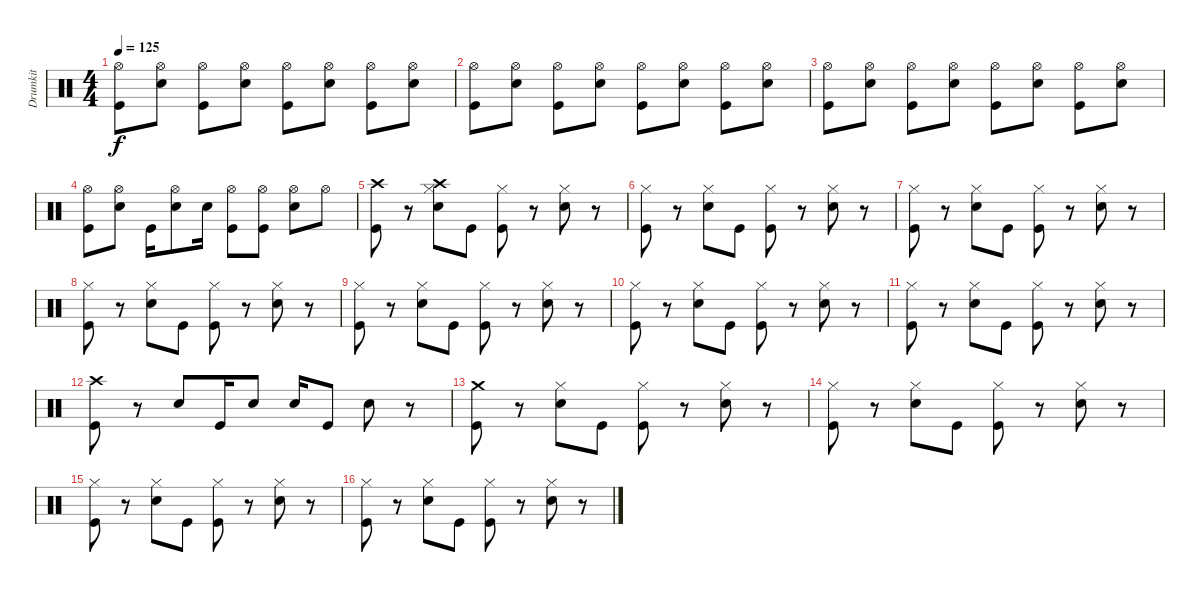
\track ("Drumkit" "Drumkit") {instrument percussion}
\staff {score}
\articulation defaults
\ts (4 4)
\tempo 125
\clef neutral
\ks c
("Hi-Hat (open)" "Kick (hit)").8{dy f} ("Hi-Hat (open)" "Snare (hit) 2").8 ("Hi-Hat (open)" "Kick (hit)").8 ("Hi-Hat (open)" "Snare (hit) 2").8 ("Hi-Hat (open)" "Kick (hit)").8 ("Hi-Hat (open)" "Snare (hit) 2").8 ("Hi-Hat (open)" "Kick (hit)").8 ("Hi-Hat (open)" "Snare (hit) 2").8 |
("Hi-Hat (open)" "Kick (hit)").8 ("Hi-Hat (open)" "Snare (hit) 2").8 ("Hi-Hat (open)" "Kick (hit)").8 ("Hi-Hat (open)" "Snare (hit) 2").8 ("Hi-Hat (open)" "Kick (hit)").8 ("Hi-Hat (open)" "Snare (hit) 2").8 ("Hi-Hat (open)" "Kick (hit)").8 ("Hi-Hat (open)" "Snare (hit) 2").8 |
("Hi-Hat (open)" "Kick (hit)").8 ("Hi-Hat (open)" "Snare (hit) 2").8 ("Hi-Hat (open)" "Kick (hit)").8 ("Hi-Hat (open)" "Snare (hit) 2").8 ("Hi-Hat (open)" "Kick (hit)").8 ("Hi-Hat (open)" "Snare (hit) 2").8 ("Hi-Hat (open)" "Kick (hit)").8 ("Hi-Hat (open)" "Snare (hit) 2").8 |
("Hi-Hat (open)" "Kick (hit)").8 ("Hi-Hat (open)" "Snare (hit) 2").8 "Kick (hit)".16 ("Hi-Hat (open)" "Snare (hit) 2").8 "Snare (hit) 2".16 ("Hi-Hat (open)" "Kick (hit)").8 ("Hi-Hat (open)" "Kick (hit)").8 ("Hi-Hat (open)" "Snare (hit) 2").8 "Hi-Hat (open)".8 |
("Crash high (hit)" "Kick (hit)").8 r.8 ("Crash high (hit)" "Hi-Hat (closed)" "Snare (hit) 2").8 "Kick (hit)".8 ("Hi-Hat (closed)" "Kick (hit)").8 r.8 ("Hi-Hat (closed)" "Snare (hit) 2").8 r.8 |
("Hi-Hat (closed)" "Kick (hit)").8 r.8 ("Hi-Hat (closed)" "Snare (hit) 2").8 "Kick (hit)".8 ("Hi-Hat (closed)" "Kick (hit)").8 r.8 ("Hi-Hat (closed)" "Snare (hit) 2").8 r.8 |
("Hi-Hat (closed)" "Kick (hit)").8 r.8 ("Hi-Hat (closed)" "Snare (hit) 2").8 "Kick (hit)".8 ("Hi-Hat (closed)" "Kick (hit)").8 r.8 ("Hi-Hat (closed)" "Snare (hit) 2").8 r.8 |
("Hi-Hat (closed)" "Kick (hit)").8 r.8 ("Hi-Hat (closed)" "Snare (hit) 2").8 "Kick (hit)".8 ("Hi-Hat (closed)" "Kick (hit)").8 r.8 ("Hi-Hat (closed)" "Snare (hit) 2").8 r.8 |
("Hi-Hat (closed)" "Kick (hit)").8 r.8 ("Hi-Hat (closed)" "Snare (hit) 2").8 "Kick (hit)".8 ("Hi-Hat (closed)" "Kick (hit)").8 r.8 ("Hi-Hat (closed)" "Snare (hit) 2").8 r.8 |
("Hi-Hat (closed)" "Kick (hit)").8 r.8 ("Hi-Hat (closed)" "Snare (hit) 2").8 "Kick (hit)".8 ("Hi-Hat (closed)" "Kick (hit)").8 r.8 ("Hi-Hat (closed)" "Snare (hit) 2").8 r.8 |
("Hi-Hat (closed)" "Kick (hit)").8 r.8 ("Hi-Hat (closed)" "Snare (hit) 2").8 "Kick (hit)".8 ("Hi-Hat (closed)" "Kick (hit)").8 r.8 ("Hi-Hat (closed)" "Snare (hit) 2").8 r.8 |
("Crash high (hit)" "Kick (hit)").8 r.8 "Snare (hit) 2".8 "Kick (hit)".16 "Snare (hit) 2".8 "Snare (hit) 2".16 "Kick (hit)".8 "Snare (hit) 2".8 r.8 |
("Crash medium (hit)" "Kick (hit)").8 r.8 ("Hi-Hat (closed)" "Snare (hit) 2").8 "Kick (hit)".8 ("Hi-Hat (closed)" "Kick (hit)").8 r.8 ("Hi-Hat (closed)" "Snare (hit) 2").8 r.8 |
("Hi-Hat (closed)" "Kick (hit)").8 r.8 ("Hi-Hat (closed)" "Snare (hit) 2").8 "Kick (hit)".8 ("Hi-Hat (closed)" "Kick (hit)").8 r.8 ("Hi-Hat (closed)" "Snare (hit) 2").8 r.8 |
("Hi-Hat (closed)" "Kick (hit)").8 r.8 ("Hi-Hat (closed)" "Snare (hit) 2").8 "Kick (hit)".8 ("Hi-Hat (closed)" "Kick (hit)").8 r.8 ("Hi-Hat (closed)" "Snare (hit) 2").8 r.8 |
("Hi-Hat (closed)" "Kick (hit)").8 r.8 ("Hi-Hat (closed)" "Snare (hit) 2").8 "Kick (hit)".8 ("Hi-Hat (closed)" "Kick (hit)").8 r.8 ("Hi-Hat (closed)" "Snare (hit) 2").8 r.8
